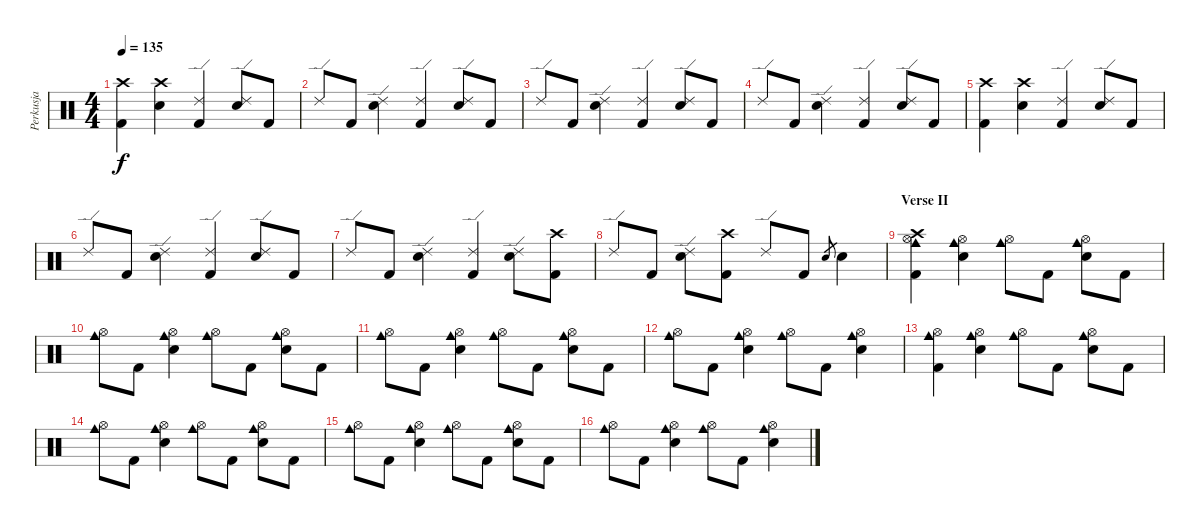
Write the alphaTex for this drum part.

\track ("Perkusja" "Perkusja") {instrument percussion}
\staff {score}
\articulation defaults
\ts (4 4)
\tempo 135
\clef neutral
\ks c
("Kick (hit) 2" "Crash high (hit)").4{dy f} ("Electric Snare (hit)" "Crash high (hit)").4 ("Kick (hit) 2" "Ride (edge) 2").4 ("Electric Snare (hit)" "Ride (edge) 2").8 "Kick (hit) 2".8 |
"Ride (edge) 2".8 "Kick (hit) 2".8 ("Electric Snare (hit)" "Ride (edge) 2").4 ("Kick (hit) 2" "Ride (edge) 2").4 ("Electric Snare (hit)" "Ride (edge) 2").8 "Kick (hit) 2".8 |
"Ride (edge) 2".8 "Kick (hit) 2".8 ("Electric Snare (hit)" "Ride (edge) 2").4 ("Kick (hit) 2" "Ride (edge) 2").4 ("Electric Snare (hit)" "Ride (edge) 2").8 "Kick (hit) 2".8 |
"Ride (edge) 2".8 "Kick (hit) 2".8 ("Electric Snare (hit)" "Ride (edge) 2").4 ("Kick (hit) 2" "Ride (edge) 2").4 ("Electric Snare (hit)" "Ride (edge) 2").8 "Kick (hit) 2".8 |
("Kick (hit) 2" "Crash high (hit)").4 ("Electric Snare (hit)" "Crash high (hit)").4 ("Kick (hit) 2" "Ride (edge) 2").4 ("Electric Snare (hit)" "Ride (edge) 2").8 "Kick (hit) 2".8 |
"Ride (edge) 2".8 "Kick (hit) 2".8 ("Electric Snare (hit)" "Ride (edge) 2").4 ("Kick (hit) 2" "Ride (edge) 2").4 ("Electric Snare (hit)" "Ride (edge) 2").8 "Kick (hit) 2".8 |
"Ride (edge) 2".8 "Kick (hit) 2".8 ("Electric Snare (hit)" "Ride (edge) 2").4 ("Kick (hit) 2" "Ride (edge) 2").4 ("Electric Snare (hit)" "Ride (edge) 2").8 ("Kick (hit) 2" "Crash high (hit)").8 |
"Ride (edge) 2".8 "Kick (hit) 2".8 ("Electric Snare (hit)" "Ride (edge) 2").8 ("Kick (hit) 2" "Crash high (hit)").8 "Ride (edge) 2".8 "Kick (hit) 2".8 "Electric Snare (hit)".8{gr} "Electric Snare (hit)".4 |
\section ("" "Verse II")
("Cowbell medium (hit)" "Kick (hit) 2" "Hi-Hat (open)" "Crash high (hit)").4 ("Cowbell medium (hit)" "Electric Snare (hit)" "Hi-Hat (open)").4 ("Cowbell medium (hit)" "Hi-Hat (open)").8 "Kick (hit) 2".8 ("Cowbell medium (hit)" "Electric Snare (hit)" "Hi-Hat (open)").8 "Kick (hit) 2".8 |
("Cowbell medium (hit)" "Hi-Hat (open)").8 "Kick (hit) 2".8 ("Cowbell medium (hit)" "Electric Snare (hit)" "Hi-Hat (open)").4 ("Cowbell medium (hit)" "Hi-Hat (open)").8 "Kick (hit) 2".8 ("Cowbell medium (hit)" "Electric Snare (hit)" "Hi-Hat (open)").8 "Kick (hit) 2".8 |
("Cowbell medium (hit)" "Hi-Hat (open)").8 "Kick (hit) 2".8 ("Cowbell medium (hit)" "Electric Snare (hit)" "Hi-Hat (open)").4 ("Cowbell medium (hit)" "Hi-Hat (open)").8 "Kick (hit) 2".8 ("Cowbell medium (hit)" "Electric Snare (hit)" "Hi-Hat (open)").8 "Kick (hit) 2".8 |
("Cowbell medium (hit)" "Hi-Hat (open)").8 "Kick (hit) 2".8 ("Cowbell medium (hit)" "Electric Snare (hit)" "Hi-Hat (open)").4 ("Cowbell medium (hit)" "Hi-Hat (open)").8 "Kick (hit) 2".8 ("Cowbell medium (hit)" "Electric Snare (hit)" "Hi-Hat (open)").4 |
("Cowbell medium (hit)" "Kick (hit) 2" "Hi-Hat (open)").4 ("Cowbell medium (hit)" "Electric Snare (hit)" "Hi-Hat (open)").4 ("Cowbell medium (hit)" "Hi-Hat (open)").8 "Kick (hit) 2".8 ("Cowbell medium (hit)" "Electric Snare (hit)" "Hi-Hat (open)").8 "Kick (hit) 2".8 |
("Cowbell medium (hit)" "Hi-Hat (open)").8 "Kick (hit) 2".8 ("Cowbell medium (hit)" "Electric Snare (hit)" "Hi-Hat (open)").4 ("Cowbell medium (hit)" "Hi-Hat (open)").8 "Kick (hit) 2".8 ("Cowbell medium (hit)" "Electric Snare (hit)" "Hi-Hat (open)").8 "Kick (hit) 2".8 |
("Cowbell medium (hit)" "Hi-Hat (open)").8 "Kick (hit) 2".8 ("Cowbell medium (hit)" "Electric Snare (hit)" "Hi-Hat (open)").4 ("Cowbell medium (hit)" "Hi-Hat (open)").8 "Kick (hit) 2".8 ("Cowbell medium (hit)" "Electric Snare (hit)" "Hi-Hat (open)").8 "Kick (hit) 2".8 |
("Cowbell medium (hit)" "Hi-Hat (open)").8 "Kick (hit) 2".8 ("Cowbell medium (hit)" "Electric Snare (hit)" "Hi-Hat (open)").4 ("Cowbell medium (hit)" "Hi-Hat (open)").8 "Kick (hit) 2".8 ("Cowbell medium (hit)" "Electric Snare (hit)" "Hi-Hat (open)").4
